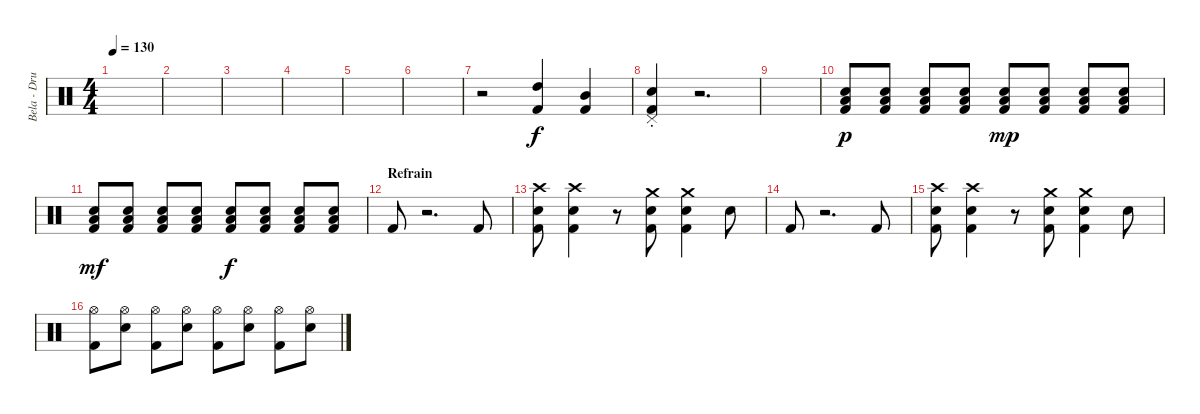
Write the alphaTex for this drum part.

\track ("Bela - Drums" "Bela - Dru") {instrument percussion}
\staff {score}
\articulation defaults
\ts (4 4)
\tempo 130
\clef neutral
\ks c
|
|
|
|
|
|
r.2 ("High Tom (hit)" "Kick (hit) 2").4 ("Mid Tom (hit)" "Kick (hit) 2").4 |
("Pedal Hi-Hat (hit)"{st} "Snare (hit) 2" "Kick (hit) 2").4 r.2{d} |
|
("Low Floor Tom (hit)" "Snare (hit) 2" "Kick (hit) 2").8{dy p} ("Low Floor Tom (hit)" "Snare (hit) 2" "Kick (hit) 2").8 ("Low Floor Tom (hit)" "Snare (hit) 2" "Kick (hit) 2").8 ("Low Floor Tom (hit)" "Snare (hit) 2" "Kick (hit) 2").8 ("Low Floor Tom (hit)" "Snare (hit) 2" "Kick (hit) 2").8{dy mp} ("Low Floor Tom (hit)" "Snare (hit) 2" "Kick (hit) 2").8 ("Low Floor Tom (hit)" "Snare (hit) 2" "Kick (hit) 2").8 ("Low Floor Tom (hit)" "Snare (hit) 2" "Kick (hit) 2").8 |
("Low Floor Tom (hit)" "Snare (hit) 2" "Kick (hit) 2").8{dy mf} ("Low Floor Tom (hit)" "Snare (hit) 2" "Kick (hit) 2").8 ("Low Floor Tom (hit)" "Snare (hit) 2" "Kick (hit) 2").8 ("Low Floor Tom (hit)" "Snare (hit) 2" "Kick (hit) 2").8 ("Low Floor Tom (hit)" "Snare (hit) 2" "Kick (hit) 2").8{dy f} ("Low Floor Tom (hit)" "Snare (hit) 2" "Kick (hit) 2").8 ("Low Floor Tom (hit)" "Snare (hit) 2" "Kick (hit) 2").8 ("Low Floor Tom (hit)" "Snare (hit) 2" "Kick (hit) 2").8 |
\section ("" "Refrain")
"Kick (hit) 2".8 r.2{d} "Kick (hit) 2".8 |
("Crash high (hit)" "Snare (hit) 2" "Kick (hit) 2").8 ("Crash high (hit)" "Snare (hit) 2" "Kick (hit) 2").4 r.8 ("Crash medium (hit)" "Snare (hit) 2" "Kick (hit) 2").8 ("Crash medium (hit)" "Snare (hit) 2" "Kick (hit) 2").4 "Snare (hit) 2".8 |
"Kick (hit) 2".8 r.2{d} "Kick (hit) 2".8 |
("Crash high (hit)" "Snare (hit) 2" "Kick (hit) 2").8 ("Crash high (hit)" "Snare (hit) 2" "Kick (hit) 2").4 r.8 ("Crash medium (hit)" "Snare (hit) 2" "Kick (hit) 2").8 ("Crash medium (hit)" "Snare (hit) 2" "Kick (hit) 2").4 "Snare (hit) 2".8 |
("Hi-Hat (open)" "Kick (hit) 2").8 ("Hi-Hat (open)" "Snare (hit) 2").8 ("Hi-Hat (open)" "Kick (hit) 2").8 ("Hi-Hat (open)" "Snare (hit) 2").8 ("Hi-Hat (open)" "Kick (hit) 2").8 ("Hi-Hat (open)" "Snare (hit) 2").8 ("Hi-Hat (open)" "Kick (hit) 2").8 ("Hi-Hat (open)" "Snare (hit) 2").8
